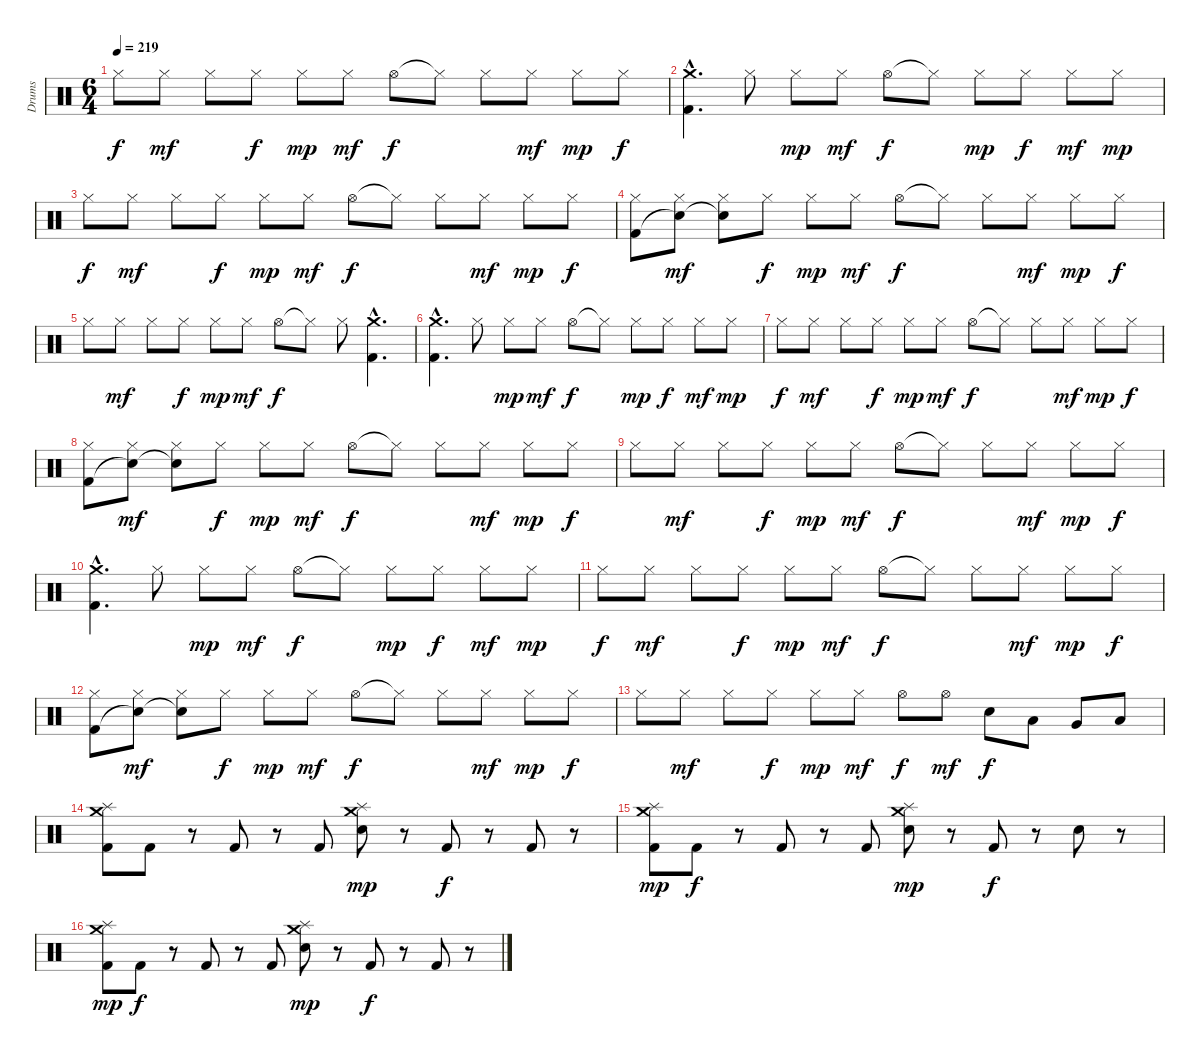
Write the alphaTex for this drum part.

\track ("Drums" "Drums") {instrument percussion}
\staff {score}
\articulation defaults
\ts (6 4)
\tempo 219
\clef neutral
\ks c "Hi-Hat (closed)".8{dy f} "Hi-Hat (closed)".8{dy mf} "Hi-Hat (closed)".8 "Hi-Hat (closed)".8{dy f} "Hi-Hat (closed)".8{dy mp} "Hi-Hat (closed)".8{dy mf} "Hi-Hat (open)".8{dy f} "Hi-Hat (closed)"{t}.8 "Hi-Hat (closed)".8 "Hi-Hat (closed)".8{dy mf} "Hi-Hat (closed)".8{dy mp} "Hi-Hat (closed)".8{dy f}
|
("Crash medium (hit)"{hac} "Kick (hit) 2"{hac}).4{d} "Hi-Hat (closed)".8 "Hi-Hat (closed)".8{dy mp} "Hi-Hat (closed)".8{dy mf} "Hi-Hat (open)".8{dy f} "Hi-Hat (closed)"{t}.8 "Hi-Hat (closed)".8{dy mp} "Hi-Hat (closed)".8{dy f} "Hi-Hat (closed)".8{dy mf} "Hi-Hat (closed)".8{dy mp} |
"Hi-Hat (closed)".8{dy f} "Hi-Hat (closed)".8{dy mf} "Hi-Hat (closed)".8 "Hi-Hat (closed)".8{dy f} "Hi-Hat (closed)".8{dy mp} "Hi-Hat (closed)".8{dy mf} "Hi-Hat (open)".8{dy f} "Hi-Hat (closed)"{t}.8 "Hi-Hat (closed)".8 "Hi-Hat (closed)".8{dy mf} "Hi-Hat (closed)".8{dy mp} "Hi-Hat (closed)".8{dy f} |
("Hi-Hat (closed)" "Kick (hit) 2").8 ("Hi-Hat (closed)" "Snare (hit)"{t}).8{dy mf} ("Hi-Hat (closed)" "Snare (hit)"{t}).8 "Hi-Hat (closed)".8{dy f} "Hi-Hat (closed)".8{dy mp} "Hi-Hat (closed)".8{dy mf} "Hi-Hat (open)".8{dy f} "Hi-Hat (closed)"{t}.8 "Hi-Hat (closed)".8 "Hi-Hat (closed)".8{dy mf} "Hi-Hat (closed)".8{dy mp} "Hi-Hat (closed)".8{dy f} |
"Hi-Hat (closed)".8 "Hi-Hat (closed)".8{dy mf} "Hi-Hat (closed)".8 "Hi-Hat (closed)".8{dy f} "Hi-Hat (closed)".8{dy mp} "Hi-Hat (closed)".8{dy mf} "Hi-Hat (open)".8{dy f} "Hi-Hat (closed)"{t}.8 "Hi-Hat (closed)".8 ("Crash medium (hit)"{hac} "Kick (hit) 2"{hac}).4{d} |
("Crash medium (hit)"{hac} "Kick (hit) 2"{hac}).4{d} "Hi-Hat (closed)".8 "Hi-Hat (closed)".8{dy mp} "Hi-Hat (closed)".8{dy mf} "Hi-Hat (open)".8{dy f} "Hi-Hat (closed)"{t}.8 "Hi-Hat (closed)".8{dy mp} "Hi-Hat (closed)".8{dy f} "Hi-Hat (closed)".8{dy mf} "Hi-Hat (closed)".8{dy mp} |
"Hi-Hat (closed)".8{dy f} "Hi-Hat (closed)".8{dy mf} "Hi-Hat (closed)".8 "Hi-Hat (closed)".8{dy f} "Hi-Hat (closed)".8{dy mp} "Hi-Hat (closed)".8{dy mf} "Hi-Hat (open)".8{dy f} "Hi-Hat (closed)"{t}.8 "Hi-Hat (closed)".8 "Hi-Hat (closed)".8{dy mf} "Hi-Hat (closed)".8{dy mp} "Hi-Hat (closed)".8{dy f} |
("Hi-Hat (closed)" "Kick (hit) 2").8 ("Hi-Hat (closed)" "Snare (hit)"{t}).8{dy mf} ("Hi-Hat (closed)" "Snare (hit)"{t}).8 "Hi-Hat (closed)".8{dy f} "Hi-Hat (closed)".8{dy mp} "Hi-Hat (closed)".8{dy mf} "Hi-Hat (open)".8{dy f} "Hi-Hat (closed)"{t}.8 "Hi-Hat (closed)".8 "Hi-Hat (closed)".8{dy mf} "Hi-Hat (closed)".8{dy mp} "Hi-Hat (closed)".8{dy f} |
"Hi-Hat (closed)".8 "Hi-Hat (closed)".8{dy mf} "Hi-Hat (closed)".8 "Hi-Hat (closed)".8{dy f} "Hi-Hat (closed)".8{dy mp} "Hi-Hat (closed)".8{dy mf} "Hi-Hat (open)".8{dy f} "Hi-Hat (closed)"{t}.8 "Hi-Hat (closed)".8 "Hi-Hat (closed)".8{dy mf} "Hi-Hat (closed)".8{dy mp} "Hi-Hat (closed)".8{dy f} |
("Crash medium (hit)"{hac} "Kick (hit) 2"{hac}).4{d} "Hi-Hat (closed)".8 "Hi-Hat (closed)".8{dy mp} "Hi-Hat (closed)".8{dy mf} "Hi-Hat (open)".8{dy f} "Hi-Hat (closed)"{t}.8 "Hi-Hat (closed)".8{dy mp} "Hi-Hat (closed)".8{dy f} "Hi-Hat (closed)".8{dy mf} "Hi-Hat (closed)".8{dy mp} |
"Hi-Hat (closed)".8{dy f} "Hi-Hat (closed)".8{dy mf} "Hi-Hat (closed)".8 "Hi-Hat (closed)".8{dy f} "Hi-Hat (closed)".8{dy mp} "Hi-Hat (closed)".8{dy mf} "Hi-Hat (open)".8{dy f} "Hi-Hat (closed)"{t}.8 "Hi-Hat (closed)".8 "Hi-Hat (closed)".8{dy mf} "Hi-Hat (closed)".8{dy mp} "Hi-Hat (closed)".8{dy f} |
("Hi-Hat (closed)" "Kick (hit) 2").8 ("Hi-Hat (closed)" "Snare (hit)"{t}).8{dy mf} ("Hi-Hat (closed)" "Snare (hit)"{t}).8 "Hi-Hat (closed)".8{dy f} "Hi-Hat (closed)".8{dy mp} "Hi-Hat (closed)".8{dy mf} "Hi-Hat (open)".8{dy f} "Hi-Hat (closed)"{t}.8 "Hi-Hat (closed)".8 "Hi-Hat (closed)".8{dy mf} "Hi-Hat (closed)".8{dy mp} "Hi-Hat (closed)".8{dy f} |
"Hi-Hat (closed)".8 "Hi-Hat (closed)".8{dy mf} "Hi-Hat (closed)".8 "Hi-Hat (closed)".8{dy f} "Hi-Hat (closed)".8{dy mp} "Hi-Hat (closed)".8{dy mf} "Hi-Hat (open)".8{dy f} "Hi-Hat (open)".8{dy mf} "Snare (hit) 2".8{dy f} "Low Tom (hit)".8 "Very Low Tom (hit)".8 "Low Floor Tom (hit)".8 |
("Splash (hit)" "Crash medium (hit)" "Kick (hit) 2").8 "Kick (hit) 2".8 r.8 "Kick (hit) 2".8 r.8 "Kick (hit) 2".8 ("Splash (hit)" "Crash medium (hit)" "Snare (hit) 2").8{dy mp} r.8 "Kick (hit) 2".8{dy f} r.8 "Kick (hit) 2".8 r.8 |
("Splash (hit)" "Crash medium (hit)" "Kick (hit) 2").8{dy mp} "Kick (hit) 2".8{dy f} r.8 "Kick (hit) 2".8 r.8 "Kick (hit) 2".8 ("Splash (hit)" "Crash medium (hit)" "Snare (hit) 2").8{dy mp} r.8 "Kick (hit) 2".8{dy f} r.8 "Snare (hit) 2".8 r.8 |
("Splash (hit)" "Crash medium (hit)" "Kick (hit) 2").8{dy mp} "Kick (hit) 2".8{dy f} r.8 "Kick (hit) 2".8 r.8 "Kick (hit) 2".8 ("Splash (hit)" "Crash medium (hit)" "Snare (hit) 2").8{dy mp} r.8 "Kick (hit) 2".8{dy f} r.8 "Kick (hit) 2".8 r.8
